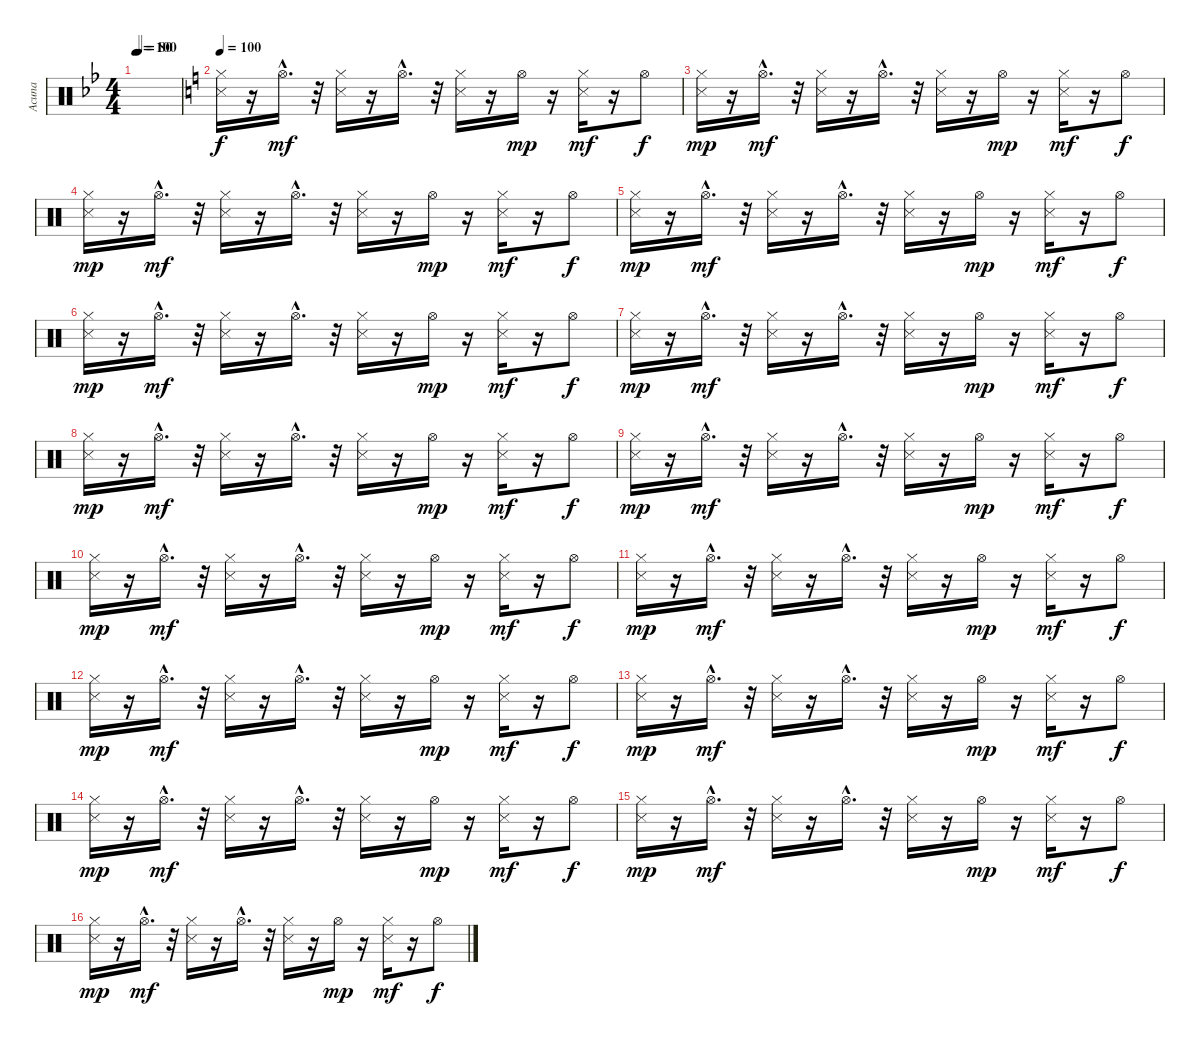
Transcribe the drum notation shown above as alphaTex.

\track ("Acuna" "Acuna") {instrument percussion}
\staff {score}
\articulation defaults
\ts (4 4)
\tempo 100
\tempo (80 0.0625)
\tempo 100
\clef neutral
\ks bb
|
\tempo 100
\ks c
("Snare (side stick) 3" "Hi-Hat (closed)").16 r.16 "Hi-Hat (open)"{hac}.16{d dy mf} r.32 ("Snare (side stick) 3" "Hi-Hat (closed)").16 r.16 "Hi-Hat (open)"{hac}.16{d} r.32 ("Snare (side stick) 3" "Hi-Hat (closed)").16 r.16 "Hi-Hat (open)".16{dy mp} r.16 ("Snare (side stick) 3" "Hi-Hat (closed)").16{dy mf} r.16 "Hi-Hat (open)".8{dy f} |
("Snare (side stick) 3" "Hi-Hat (closed)").16{dy mp} r.16 "Hi-Hat (open)"{hac}.16{d dy mf} r.32 ("Snare (side stick) 3" "Hi-Hat (closed)").16 r.16 "Hi-Hat (open)"{hac}.16{d} r.32 ("Snare (side stick) 3" "Hi-Hat (closed)").16 r.16 "Hi-Hat (open)".16{dy mp} r.16 ("Snare (side stick) 3" "Hi-Hat (closed)").16{dy mf} r.16 "Hi-Hat (open)".8{dy f} |
("Snare (side stick) 3" "Hi-Hat (closed)").16{dy mp} r.16 "Hi-Hat (open)"{hac}.16{d dy mf} r.32 ("Snare (side stick) 3" "Hi-Hat (closed)").16 r.16 "Hi-Hat (open)"{hac}.16{d} r.32 ("Snare (side stick) 3" "Hi-Hat (closed)").16 r.16 "Hi-Hat (open)".16{dy mp} r.16 ("Snare (side stick) 3" "Hi-Hat (closed)").16{dy mf} r.16 "Hi-Hat (open)".8{dy f} |
("Snare (side stick) 3" "Hi-Hat (closed)").16{dy mp} r.16 "Hi-Hat (open)"{hac}.16{d dy mf} r.32 ("Snare (side stick) 3" "Hi-Hat (closed)").16 r.16 "Hi-Hat (open)"{hac}.16{d} r.32 ("Snare (side stick) 3" "Hi-Hat (closed)").16 r.16 "Hi-Hat (open)".16{dy mp} r.16 ("Snare (side stick) 3" "Hi-Hat (closed)").16{dy mf} r.16 "Hi-Hat (open)".8{dy f} |
("Snare (side stick) 3" "Hi-Hat (closed)").16{dy mp} r.16 "Hi-Hat (open)"{hac}.16{d dy mf} r.32 ("Snare (side stick) 3" "Hi-Hat (closed)").16 r.16 "Hi-Hat (open)"{hac}.16{d} r.32 ("Snare (side stick) 3" "Hi-Hat (closed)").16 r.16 "Hi-Hat (open)".16{dy mp} r.16 ("Snare (side stick) 3" "Hi-Hat (closed)").16{dy mf} r.16 "Hi-Hat (open)".8{dy f} |
("Snare (side stick) 3" "Hi-Hat (closed)").16{dy mp} r.16 "Hi-Hat (open)"{hac}.16{d dy mf} r.32 ("Snare (side stick) 3" "Hi-Hat (closed)").16 r.16 "Hi-Hat (open)"{hac}.16{d} r.32 ("Snare (side stick) 3" "Hi-Hat (closed)").16 r.16 "Hi-Hat (open)".16{dy mp} r.16 ("Snare (side stick) 3" "Hi-Hat (closed)").16{dy mf} r.16 "Hi-Hat (open)".8{dy f} |
("Snare (side stick) 3" "Hi-Hat (closed)").16{dy mp} r.16 "Hi-Hat (open)"{hac}.16{d dy mf} r.32 ("Snare (side stick) 3" "Hi-Hat (closed)").16 r.16 "Hi-Hat (open)"{hac}.16{d} r.32 ("Snare (side stick) 3" "Hi-Hat (closed)").16 r.16 "Hi-Hat (open)".16{dy mp} r.16 ("Snare (side stick) 3" "Hi-Hat (closed)").16{dy mf} r.16 "Hi-Hat (open)".8{dy f} |
("Snare (side stick) 3" "Hi-Hat (closed)").16{dy mp} r.16 "Hi-Hat (open)"{hac}.16{d dy mf} r.32 ("Snare (side stick) 3" "Hi-Hat (closed)").16 r.16 "Hi-Hat (open)"{hac}.16{d} r.32 ("Snare (side stick) 3" "Hi-Hat (closed)").16 r.16 "Hi-Hat (open)".16{dy mp} r.16 ("Snare (side stick) 3" "Hi-Hat (closed)").16{dy mf} r.16 "Hi-Hat (open)".8{dy f} |
("Snare (side stick) 3" "Hi-Hat (closed)").16{dy mp} r.16 "Hi-Hat (open)"{hac}.16{d dy mf} r.32 ("Snare (side stick) 3" "Hi-Hat (closed)").16 r.16 "Hi-Hat (open)"{hac}.16{d} r.32 ("Snare (side stick) 3" "Hi-Hat (closed)").16 r.16 "Hi-Hat (open)".16{dy mp} r.16 ("Snare (side stick) 3" "Hi-Hat (closed)").16{dy mf} r.16 "Hi-Hat (open)".8{dy f} |
("Snare (side stick) 3" "Hi-Hat (closed)").16{dy mp} r.16 "Hi-Hat (open)"{hac}.16{d dy mf} r.32 ("Snare (side stick) 3" "Hi-Hat (closed)").16 r.16 "Hi-Hat (open)"{hac}.16{d} r.32 ("Snare (side stick) 3" "Hi-Hat (closed)").16 r.16 "Hi-Hat (open)".16{dy mp} r.16 ("Snare (side stick) 3" "Hi-Hat (closed)").16{dy mf} r.16 "Hi-Hat (open)".8{dy f} |
("Snare (side stick) 3" "Hi-Hat (closed)").16{dy mp} r.16 "Hi-Hat (open)"{hac}.16{d dy mf} r.32 ("Snare (side stick) 3" "Hi-Hat (closed)").16 r.16 "Hi-Hat (open)"{hac}.16{d} r.32 ("Snare (side stick) 3" "Hi-Hat (closed)").16 r.16 "Hi-Hat (open)".16{dy mp} r.16 ("Snare (side stick) 3" "Hi-Hat (closed)").16{dy mf} r.16 "Hi-Hat (open)".8{dy f} |
("Snare (side stick) 3" "Hi-Hat (closed)").16{dy mp} r.16 "Hi-Hat (open)"{hac}.16{d dy mf} r.32 ("Snare (side stick) 3" "Hi-Hat (closed)").16 r.16 "Hi-Hat (open)"{hac}.16{d} r.32 ("Snare (side stick) 3" "Hi-Hat (closed)").16 r.16 "Hi-Hat (open)".16{dy mp} r.16 ("Snare (side stick) 3" "Hi-Hat (closed)").16{dy mf} r.16 "Hi-Hat (open)".8{dy f} |
("Snare (side stick) 3" "Hi-Hat (closed)").16{dy mp} r.16 "Hi-Hat (open)"{hac}.16{d dy mf} r.32 ("Snare (side stick) 3" "Hi-Hat (closed)").16 r.16 "Hi-Hat (open)"{hac}.16{d} r.32 ("Snare (side stick) 3" "Hi-Hat (closed)").16 r.16 "Hi-Hat (open)".16{dy mp} r.16 ("Snare (side stick) 3" "Hi-Hat (closed)").16{dy mf} r.16 "Hi-Hat (open)".8{dy f} |
("Snare (side stick) 3" "Hi-Hat (closed)").16{dy mp} r.16 "Hi-Hat (open)"{hac}.16{d dy mf} r.32 ("Snare (side stick) 3" "Hi-Hat (closed)").16 r.16 "Hi-Hat (open)"{hac}.16{d} r.32 ("Snare (side stick) 3" "Hi-Hat (closed)").16 r.16 "Hi-Hat (open)".16{dy mp} r.16 ("Snare (side stick) 3" "Hi-Hat (closed)").16{dy mf} r.16 "Hi-Hat (open)".8{dy f} |
("Snare (side stick) 3" "Hi-Hat (closed)").16{dy mp} r.16 "Hi-Hat (open)"{hac}.16{d dy mf} r.32 ("Snare (side stick) 3" "Hi-Hat (closed)").16 r.16 "Hi-Hat (open)"{hac}.16{d} r.32 ("Snare (side stick) 3" "Hi-Hat (closed)").16 r.16 "Hi-Hat (open)".16{dy mp} r.16 ("Snare (side stick) 3" "Hi-Hat (closed)").16{dy mf} r.16 "Hi-Hat (open)".8{dy f}
